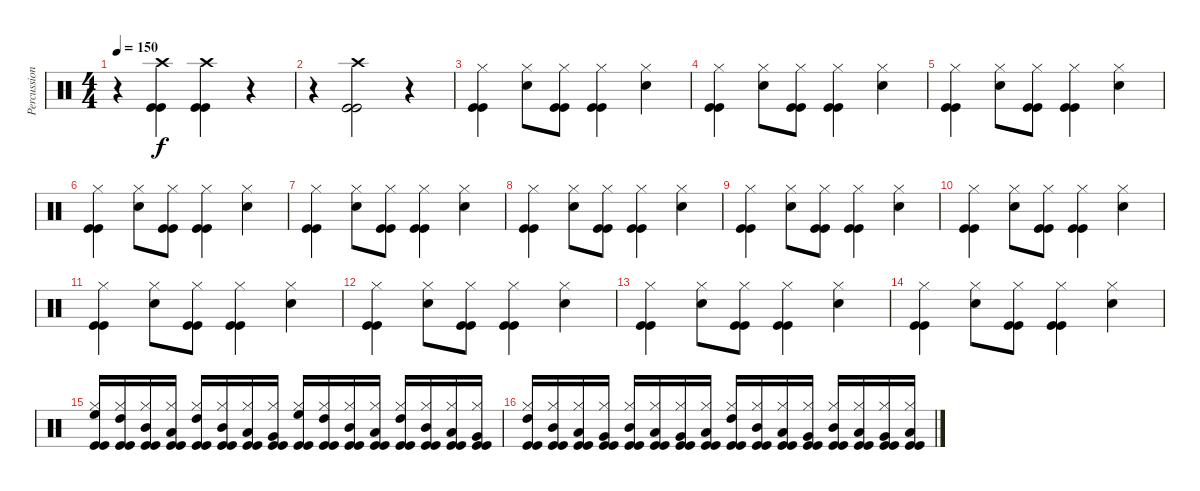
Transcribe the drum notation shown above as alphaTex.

\track ("Percussion" "Percussion") {instrument percussion}
\staff {score}
\articulation defaults
\ts (4 4)
\tempo 150
\clef neutral
\ks c
r.4{dy f} ("Crash high (hit)" "Kick (hit)" "Kick (hit)").4 ("Crash high (hit)" "Kick (hit)" "Kick (hit)").4 r.4 |
r.4 ("Crash high (hit)" "Kick (hit)" "Kick (hit)").2 r.4 |
("Kick (hit)" "Kick (hit)" "Hi-Hat (closed)").4 ("Electric Snare (hit)" "Hi-Hat (closed)").8 ("Kick (hit)" "Kick (hit)" "Hi-Hat (closed)").8 ("Kick (hit)" "Kick (hit)" "Hi-Hat (closed)").4 ("Electric Snare (hit)" "Hi-Hat (closed)").4 |
("Kick (hit)" "Kick (hit)" "Hi-Hat (closed)").4 ("Electric Snare (hit)" "Hi-Hat (closed)").8 ("Kick (hit)" "Kick (hit)" "Hi-Hat (closed)").8 ("Kick (hit)" "Kick (hit)" "Hi-Hat (closed)").4 ("Electric Snare (hit)" "Hi-Hat (closed)").4 |
("Kick (hit)" "Kick (hit)" "Hi-Hat (closed)").4 ("Electric Snare (hit)" "Hi-Hat (closed)").8 ("Kick (hit)" "Kick (hit)" "Hi-Hat (closed)").8 ("Kick (hit)" "Kick (hit)" "Hi-Hat (closed)").4 ("Electric Snare (hit)" "Hi-Hat (closed)").4 |
("Kick (hit)" "Kick (hit)" "Hi-Hat (closed)").4 ("Electric Snare (hit)" "Hi-Hat (closed)").8 ("Kick (hit)" "Kick (hit)" "Hi-Hat (closed)").8 ("Kick (hit)" "Kick (hit)" "Hi-Hat (closed)").4 ("Electric Snare (hit)" "Hi-Hat (closed)").4 |
("Kick (hit)" "Kick (hit)" "Hi-Hat (closed)").4 ("Electric Snare (hit)" "Hi-Hat (closed)").8 ("Kick (hit)" "Kick (hit)" "Hi-Hat (closed)").8 ("Kick (hit)" "Kick (hit)" "Hi-Hat (closed)").4 ("Electric Snare (hit)" "Hi-Hat (closed)").4 |
("Kick (hit)" "Kick (hit)" "Hi-Hat (closed)").4 ("Electric Snare (hit)" "Hi-Hat (closed)").8 ("Kick (hit)" "Kick (hit)" "Hi-Hat (closed)").8 ("Kick (hit)" "Kick (hit)" "Hi-Hat (closed)").4 ("Electric Snare (hit)" "Hi-Hat (closed)").4 |
("Kick (hit)" "Kick (hit)" "Hi-Hat (closed)").4 ("Electric Snare (hit)" "Hi-Hat (closed)").8 ("Kick (hit)" "Kick (hit)" "Hi-Hat (closed)").8 ("Kick (hit)" "Kick (hit)" "Hi-Hat (closed)").4 ("Electric Snare (hit)" "Hi-Hat (closed)").4 |
("Kick (hit)" "Kick (hit)" "Hi-Hat (closed)").4 ("Electric Snare (hit)" "Hi-Hat (closed)").8 ("Kick (hit)" "Kick (hit)" "Hi-Hat (closed)").8 ("Kick (hit)" "Kick (hit)" "Hi-Hat (closed)").4 ("Electric Snare (hit)" "Hi-Hat (closed)").4 |
("Kick (hit)" "Kick (hit)" "Hi-Hat (closed)").4 ("Electric Snare (hit)" "Hi-Hat (closed)").8 ("Kick (hit)" "Kick (hit)" "Hi-Hat (closed)").8 ("Kick (hit)" "Kick (hit)" "Hi-Hat (closed)").4 ("Electric Snare (hit)" "Hi-Hat (closed)").4 |
("Kick (hit)" "Kick (hit)" "Hi-Hat (closed)").4 ("Electric Snare (hit)" "Hi-Hat (closed)").8 ("Kick (hit)" "Kick (hit)" "Hi-Hat (closed)").8 ("Kick (hit)" "Kick (hit)" "Hi-Hat (closed)").4 ("Electric Snare (hit)" "Hi-Hat (closed)").4 |
("Kick (hit)" "Kick (hit)" "Hi-Hat (closed)").4 ("Electric Snare (hit)" "Hi-Hat (closed)").8 ("Kick (hit)" "Kick (hit)" "Hi-Hat (closed)").8 ("Kick (hit)" "Kick (hit)" "Hi-Hat (closed)").4 ("Electric Snare (hit)" "Hi-Hat (closed)").4 |
("Kick (hit)" "Kick (hit)" "Hi-Hat (closed)").4 ("Electric Snare (hit)" "Hi-Hat (closed)").8 ("Kick (hit)" "Kick (hit)" "Hi-Hat (closed)").8 ("Kick (hit)" "Kick (hit)" "Hi-Hat (closed)").4 ("Electric Snare (hit)" "Hi-Hat (closed)").4 |
("High Floor Tom (hit)" "Kick (hit)" "Kick (hit)" "Hi-Hat (closed)").16 ("High Tom (hit)" "Kick (hit)" "Kick (hit)" "Hi-Hat (closed)").16 ("Mid Tom (hit)" "Kick (hit)" "Kick (hit)" "Hi-Hat (closed)").16 ("Low Tom (hit)" "Kick (hit)" "Kick (hit)" "Hi-Hat (closed)").16 ("High Tom (hit)" "Kick (hit)" "Kick (hit)" "Hi-Hat (closed)").16 ("Mid Tom (hit)" "Kick (hit)" "Kick (hit)" "Hi-Hat (closed)").16 ("Low Tom (hit)" "Kick (hit)" "Kick (hit)" "Hi-Hat (closed)").16 ("Very Low Tom (hit)" "Kick (hit)" "Kick (hit)" "Hi-Hat (closed)").16 ("High Floor Tom (hit)" "Kick (hit)" "Kick (hit)" "Hi-Hat (closed)").16 ("High Tom (hit)" "Kick (hit)" "Kick (hit)" "Hi-Hat (closed)").16 ("Mid Tom (hit)" "Kick (hit)" "Kick (hit)" "Hi-Hat (closed)").16 ("Low Tom (hit)" "Kick (hit)" "Kick (hit)" "Hi-Hat (closed)").16 ("High Tom (hit)" "Kick (hit)" "Kick (hit)" "Hi-Hat (closed)").16 ("Mid Tom (hit)" "Kick (hit)" "Kick (hit)" "Hi-Hat (closed)").16 ("Low Tom (hit)" "Kick (hit)" "Kick (hit)" "Hi-Hat (closed)").16 ("Very Low Tom (hit)" "Kick (hit)" "Kick (hit)" "Hi-Hat (closed)").16 |
("High Tom (hit)" "Kick (hit)" "Kick (hit)" "Hi-Hat (closed)").16 ("Mid Tom (hit)" "Kick (hit)" "Kick (hit)" "Hi-Hat (closed)").16 ("Low Tom (hit)" "Kick (hit)" "Kick (hit)" "Hi-Hat (closed)").16 ("Very Low Tom (hit)" "Kick (hit)" "Kick (hit)" "Hi-Hat (closed)").16 ("Mid Tom (hit)" "Kick (hit)" "Kick (hit)" "Hi-Hat (closed)").16 ("Low Tom (hit)" "Kick (hit)" "Kick (hit)" "Hi-Hat (closed)").16 ("Very Low Tom (hit)" "Kick (hit)" "Kick (hit)" "Hi-Hat (closed)").16 ("Low Floor Tom (hit)" "Kick (hit)" "Kick (hit)" "Hi-Hat (closed)").16 ("High Tom (hit)" "Kick (hit)" "Kick (hit)" "Hi-Hat (closed)").16 ("Mid Tom (hit)" "Kick (hit)" "Kick (hit)" "Hi-Hat (closed)").16 ("Low Tom (hit)" "Kick (hit)" "Kick (hit)" "Hi-Hat (closed)").16 ("Very Low Tom (hit)" "Kick (hit)" "Kick (hit)" "Hi-Hat (closed)").16 ("Mid Tom (hit)" "Kick (hit)" "Kick (hit)" "Hi-Hat (closed)").16 ("Low Tom (hit)" "Kick (hit)" "Kick (hit)" "Hi-Hat (closed)").16 ("Very Low Tom (hit)" "Kick (hit)" "Kick (hit)" "Hi-Hat (closed)").16 ("Low Floor Tom (hit)" "Kick (hit)" "Kick (hit)" "Hi-Hat (closed)").16
